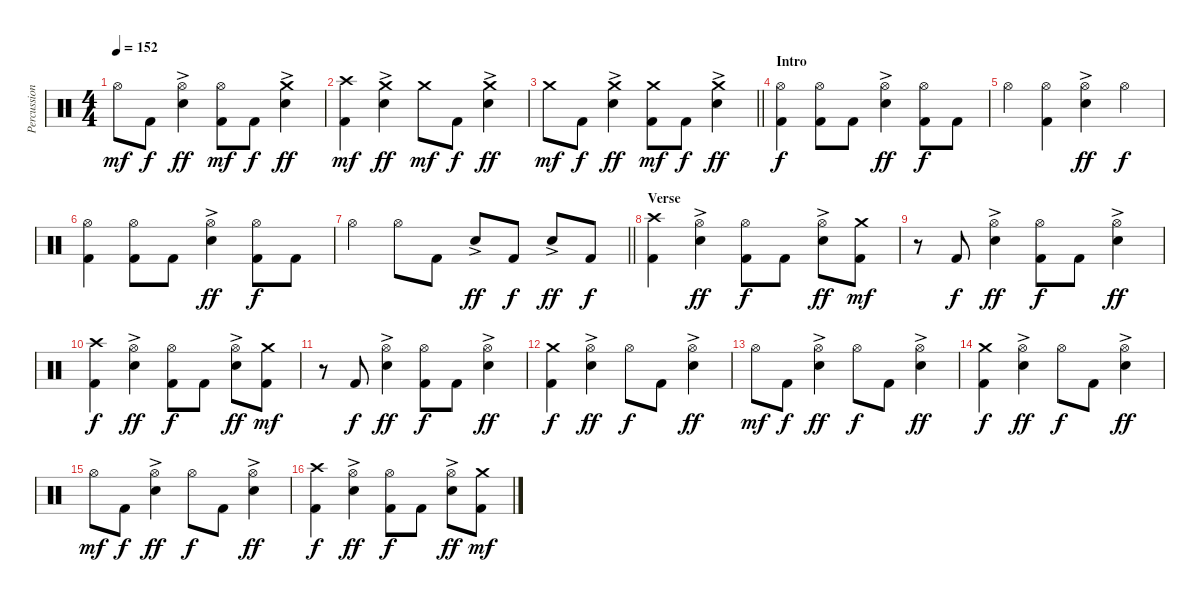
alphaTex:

\track ("Percussion" "Percussion") {instrument percussion}
\staff {score}
\articulation defaults
\ts (4 4)
\tempo 152
\clef neutral
\ks c "Hi-Hat (open)".8{dy mf} "Kick (hit) 2".8{dy f}
("Hi-Hat (open)" "Electric Snare (hit)"{ac}).4{dy ff} ("Hi-Hat (open)" "Kick (hit) 2").8{dy mf} "Kick (hit) 2".8{dy f} ("Crash medium (hit)" "Electric Snare (hit)"{ac}).4{dy ff} |
("Crash high (hit)" "Kick (hit) 2").4{dy mf} ("Crash medium (hit)" "Electric Snare (hit)"{ac}).4{dy ff} "Crash medium (hit)".8{dy mf} "Kick (hit) 2".8{dy f} ("Crash medium (hit)" "Electric Snare (hit)"{ac}).4{dy ff} |
\barLineRight lightlight "Crash medium (hit)".8{dy mf} "Kick (hit) 2".8{dy f}
("Crash medium (hit)" "Electric Snare (hit)"{ac}).4{dy ff} ("Crash medium (hit)" "Kick (hit) 2").8{dy mf} "Kick (hit) 2".8{dy f} ("Crash medium (hit)" "Electric Snare (hit)"{ac}).4{dy ff} |
\section ("" "Intro")
("Hi-Hat (open)" "Kick (hit) 2").4{dy f} ("Hi-Hat (open)" "Kick (hit) 2").8 "Kick (hit) 2".8 ("Hi-Hat (open)" "Electric Snare (hit)"{ac}).4{dy ff} ("Hi-Hat (open)" "Kick (hit) 2").8{dy f} "Kick (hit) 2".8 |
"Hi-Hat (open)".4 ("Hi-Hat (open)" "Kick (hit) 2").4 ("Hi-Hat (open)" "Electric Snare (hit)"{ac}).4{dy ff} "Hi-Hat (open)".4{dy f} |
("Hi-Hat (open)" "Kick (hit) 2").4 ("Hi-Hat (open)" "Kick (hit) 2").8 "Kick (hit) 2".8 ("Hi-Hat (open)" "Electric Snare (hit)"{ac}).4{dy ff} ("Hi-Hat (open)" "Kick (hit) 2").8{dy f} "Kick (hit) 2".8 |
\barLineRight lightlight "Hi-Hat (open)".4 "Hi-Hat (open)".8 "Kick (hit) 2".8 "Electric Snare (hit)"{ac}.8{dy ff} "Kick (hit) 2".8{dy f} "Electric Snare (hit)"{ac}.8{dy ff} "Kick (hit) 2".8{dy f}
|
\section ("" "Verse")
("Crash high (hit)" "Kick (hit) 2").4 ("Hi-Hat (open)" "Electric Snare (hit)"{ac}).4{dy ff} ("Hi-Hat (open)" "Kick (hit) 2").8{dy f} "Kick (hit) 2".8 ("Hi-Hat (open)" "Electric Snare (hit)"{ac}).8{dy ff} ("Crash medium (hit)" "Kick (hit) 2").8{dy mf} |
r.8 "Kick (hit) 2".8{dy f} ("Hi-Hat (open)" "Electric Snare (hit)"{ac}).4{dy ff} ("Hi-Hat (open)" "Kick (hit) 2").8{dy f} "Kick (hit) 2".8 ("Hi-Hat (open)" "Electric Snare (hit)"{ac}).4{dy ff} |
("Crash high (hit)" "Kick (hit) 2").4{dy f} ("Hi-Hat (open)" "Electric Snare (hit)"{ac}).4{dy ff} ("Hi-Hat (open)" "Kick (hit) 2").8{dy f} "Kick (hit) 2".8 ("Hi-Hat (open)" "Electric Snare (hit)"{ac}).8{dy ff} ("Crash medium (hit)" "Kick (hit) 2").8{dy mf} |
r.8 "Kick (hit) 2".8{dy f} ("Hi-Hat (open)" "Electric Snare (hit)"{ac}).4{dy ff} ("Hi-Hat (open)" "Kick (hit) 2").8{dy f} "Kick (hit) 2".8 ("Hi-Hat (open)" "Electric Snare (hit)"{ac}).4{dy ff} |
("Crash medium (hit)" "Kick (hit) 2").4{dy f} ("Hi-Hat (open)" "Electric Snare (hit)"{ac}).4{dy ff} "Hi-Hat (open)".8{dy f} "Kick (hit) 2".8 ("Hi-Hat (open)" "Electric Snare (hit)"{ac}).4{dy ff} |
"Hi-Hat (open)".8{dy mf} "Kick (hit) 2".8{dy f} ("Hi-Hat (open)" "Electric Snare (hit)"{ac}).4{dy ff} "Hi-Hat (open)".8{dy f} "Kick (hit) 2".8 ("Hi-Hat (open)" "Electric Snare (hit)"{ac}).4{dy ff} |
("Crash medium (hit)" "Kick (hit) 2").4{dy f} ("Hi-Hat (open)" "Electric Snare (hit)"{ac}).4{dy ff} "Hi-Hat (open)".8{dy f} "Kick (hit) 2".8 ("Hi-Hat (open)" "Electric Snare (hit)"{ac}).4{dy ff} |
"Hi-Hat (open)".8{dy mf} "Kick (hit) 2".8{dy f} ("Hi-Hat (open)" "Electric Snare (hit)"{ac}).4{dy ff} "Hi-Hat (open)".8{dy f} "Kick (hit) 2".8 ("Hi-Hat (open)" "Electric Snare (hit)"{ac}).4{dy ff} |
("Crash high (hit)" "Kick (hit) 2").4{dy f} ("Hi-Hat (open)" "Electric Snare (hit)"{ac}).4{dy ff} ("Hi-Hat (open)" "Kick (hit) 2").8{dy f} "Kick (hit) 2".8 ("Hi-Hat (open)" "Electric Snare (hit)"{ac}).8{dy ff} ("Crash medium (hit)" "Kick (hit) 2").8{dy mf}
